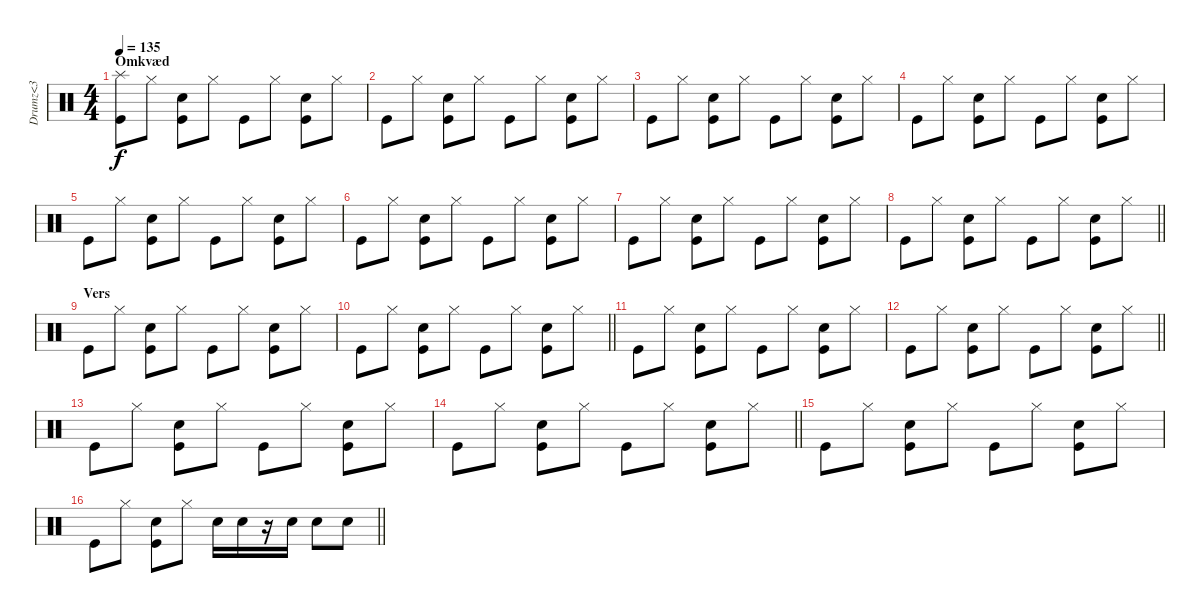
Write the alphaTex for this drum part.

\track ("Drumz<3" "Drumz<3") {instrument percussion}
\staff {score}
\articulation defaults
\ts (4 4)
\section ("" "Omkvæd")
\tempo 135
\clef neutral
\ks c
("Splash (hit)" "Kick (hit)").8{dy f} "Hi-Hat (closed)".8 ("Kick (hit)" "Snare (hit) 2").8 "Hi-Hat (closed)".8 "Kick (hit)".8 "Hi-Hat (closed)".8 ("Kick (hit)" "Snare (hit) 2").8 "Hi-Hat (closed)".8 |
"Kick (hit)".8 "Hi-Hat (closed)".8 ("Kick (hit)" "Snare (hit) 2").8 "Hi-Hat (closed)".8 "Kick (hit)".8 "Hi-Hat (closed)".8 ("Kick (hit)" "Snare (hit) 2").8 "Hi-Hat (closed)".8 |
"Kick (hit)".8 "Hi-Hat (closed)".8 ("Kick (hit)" "Snare (hit) 2").8 "Hi-Hat (closed)".8 "Kick (hit)".8 "Hi-Hat (closed)".8 ("Kick (hit)" "Snare (hit) 2").8 "Hi-Hat (closed)".8 |
"Kick (hit)".8 "Hi-Hat (closed)".8 ("Kick (hit)" "Snare (hit) 2").8 "Hi-Hat (closed)".8 "Kick (hit)".8 "Hi-Hat (closed)".8 ("Kick (hit)" "Snare (hit) 2").8 "Hi-Hat (closed)".8 |
"Kick (hit)".8 "Hi-Hat (closed)".8 ("Kick (hit)" "Snare (hit) 2").8 "Hi-Hat (closed)".8 "Kick (hit)".8 "Hi-Hat (closed)".8 ("Kick (hit)" "Snare (hit) 2").8 "Hi-Hat (closed)".8 |
"Kick (hit)".8 "Hi-Hat (closed)".8 ("Kick (hit)" "Snare (hit) 2").8 "Hi-Hat (closed)".8 "Kick (hit)".8 "Hi-Hat (closed)".8 ("Kick (hit)" "Snare (hit) 2").8 "Hi-Hat (closed)".8 |
"Kick (hit)".8 "Hi-Hat (closed)".8 ("Kick (hit)" "Snare (hit) 2").8 "Hi-Hat (closed)".8 "Kick (hit)".8 "Hi-Hat (closed)".8 ("Kick (hit)" "Snare (hit) 2").8 "Hi-Hat (closed)".8 |
\barLineRight lightlight "Kick (hit)".8 "Hi-Hat (closed)".8
("Kick (hit)" "Snare (hit) 2").8 "Hi-Hat (closed)".8 "Kick (hit)".8 "Hi-Hat (closed)".8 ("Kick (hit)" "Snare (hit) 2").8 "Hi-Hat (closed)".8 |
\section ("" "Vers")
"Kick (hit)".8 "Hi-Hat (closed)".8 ("Kick (hit)" "Snare (hit) 2").8 "Hi-Hat (closed)".8 "Kick (hit)".8 "Hi-Hat (closed)".8 ("Kick (hit)" "Snare (hit) 2").8 "Hi-Hat (closed)".8 |
\barLineRight lightlight "Kick (hit)".8 "Hi-Hat (closed)".8
("Kick (hit)" "Snare (hit) 2").8 "Hi-Hat (closed)".8 "Kick (hit)".8 "Hi-Hat (closed)".8 ("Kick (hit)" "Snare (hit) 2").8 "Hi-Hat (closed)".8 |
"Kick (hit)".8 "Hi-Hat (closed)".8 ("Kick (hit)" "Snare (hit) 2").8 "Hi-Hat (closed)".8 "Kick (hit)".8 "Hi-Hat (closed)".8 ("Kick (hit)" "Snare (hit) 2").8 "Hi-Hat (closed)".8 |
\barLineRight lightlight "Kick (hit)".8 "Hi-Hat (closed)".8
("Kick (hit)" "Snare (hit) 2").8 "Hi-Hat (closed)".8 "Kick (hit)".8 "Hi-Hat (closed)".8 ("Kick (hit)" "Snare (hit) 2").8 "Hi-Hat (closed)".8 |
"Kick (hit)".8 "Hi-Hat (closed)".8 ("Kick (hit)" "Snare (hit) 2").8 "Hi-Hat (closed)".8 "Kick (hit)".8 "Hi-Hat (closed)".8 ("Kick (hit)" "Snare (hit) 2").8 "Hi-Hat (closed)".8 |
\barLineRight lightlight "Kick (hit)".8 "Hi-Hat (closed)".8
("Kick (hit)" "Snare (hit) 2").8 "Hi-Hat (closed)".8 "Kick (hit)".8 "Hi-Hat (closed)".8 ("Kick (hit)" "Snare (hit) 2").8 "Hi-Hat (closed)".8 |
"Kick (hit)".8 "Hi-Hat (closed)".8 ("Kick (hit)" "Snare (hit) 2").8 "Hi-Hat (closed)".8 "Kick (hit)".8 "Hi-Hat (closed)".8 ("Kick (hit)" "Snare (hit) 2").8 "Hi-Hat (closed)".8 |
\barLineRight lightlight "Kick (hit)".8 "Hi-Hat (closed)".8
("Kick (hit)" "Snare (hit) 2").8 "Hi-Hat (closed)".8 "Snare (hit) 2".16 "Snare (hit) 2".16 r.16 "Snare (hit) 2".16 "Snare (hit) 2".8 "Snare (hit) 2".8
